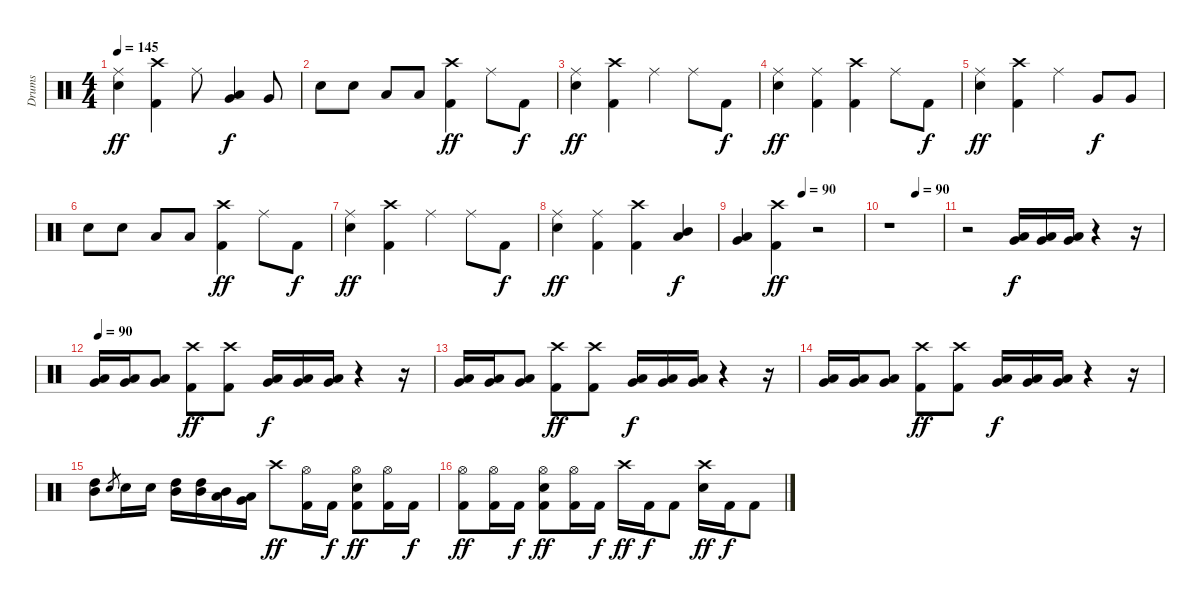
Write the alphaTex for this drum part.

\track ("Drums" "Drums") {instrument percussion}
\staff {score}
\articulation defaults
\ts (4 4)
\tempo 145
\clef neutral
\ks c
("Ride (middle)" "Electric Snare (hit)").4{dy ff} ("Crash high (hit)" "Kick (hit) 2").4 "Ride (middle)".8 ("Low Tom (hit)" "Very Low Tom (hit)").4{dy f} "Very Low Tom (hit)".8 |
"Electric Snare (hit)".8 "Electric Snare (hit)".8 "Low Tom (hit)".8 "Low Tom (hit)".8 ("Crash high (hit)" "Kick (hit) 2").4{dy ff} "Ride (middle)".8 "Kick (hit) 2".8{dy f} |
("Ride (middle)" "Electric Snare (hit)").4{dy ff} ("Crash high (hit)" "Kick (hit) 2").4 "Ride (middle)".4 "Ride (middle)".8 "Kick (hit) 2".8{dy f} |
("Ride (middle)" "Electric Snare (hit)").4{dy ff} ("Ride (middle)" "Kick (hit) 2").4 ("Crash high (hit)" "Kick (hit) 2").4 "Ride (middle)".8 "Kick (hit) 2".8{dy f} |
("Ride (middle)" "Electric Snare (hit)").4{dy ff} ("Crash high (hit)" "Kick (hit) 2").4 "Ride (middle)".4 "Very Low Tom (hit)".8{dy f} "Very Low Tom (hit)".8 |
"Electric Snare (hit)".8 "Electric Snare (hit)".8 "Low Tom (hit)".8 "Low Tom (hit)".8 ("Crash high (hit)" "Kick (hit) 2").4{dy ff} "Ride (middle)".8 "Kick (hit) 2".8{dy f} |
("Ride (middle)" "Electric Snare (hit)").4{dy ff} ("Crash high (hit)" "Kick (hit) 2").4 "Ride (middle)".4 "Ride (middle)".8 "Kick (hit) 2".8{dy f} |
("Ride (middle)" "Electric Snare (hit)").4{dy ff} ("Ride (middle)" "Kick (hit) 2").4 ("Crash high (hit)" "Kick (hit) 2").4 ("Mid Tom (hit)" "Low Tom (hit)").4{dy f} |
\tempo (90 0.5)
("Low Tom (hit)" "Very Low Tom (hit)").4 ("Crash high (hit)" "Kick (hit) 2").4{dy ff} r.2 |
\tempo (90 0.5)
r.1 |
r.2 ("Very Low Tom (hit)" "Low Floor Tom (hit)").16{dy f} ("Very Low Tom (hit)" "Low Floor Tom (hit)").16 ("Very Low Tom (hit)" "Low Floor Tom (hit)").16 r.4 r.16 |
\tempo 90
("Very Low Tom (hit)" "Low Floor Tom (hit)").16 ("Very Low Tom (hit)" "Low Floor Tom (hit)").16 ("Very Low Tom (hit)" "Low Floor Tom (hit)").8 ("Crash high (hit)" "Kick (hit) 2").8{dy ff} ("Crash high (hit)" "Kick (hit) 2").8 ("Very Low Tom (hit)" "Low Floor Tom (hit)").16{dy f} ("Very Low Tom (hit)" "Low Floor Tom (hit)").16 ("Very Low Tom (hit)" "Low Floor Tom (hit)").16 r.4 r.16 |
("Very Low Tom (hit)" "Low Floor Tom (hit)").16 ("Very Low Tom (hit)" "Low Floor Tom (hit)").16 ("Very Low Tom (hit)" "Low Floor Tom (hit)").8 ("Crash high (hit)" "Kick (hit) 2").8{dy ff} ("Crash high (hit)" "Kick (hit) 2").8 ("Very Low Tom (hit)" "Low Floor Tom (hit)").16{dy f} ("Very Low Tom (hit)" "Low Floor Tom (hit)").16 ("Very Low Tom (hit)" "Low Floor Tom (hit)").16 r.4 r.16 |
("Very Low Tom (hit)" "Low Floor Tom (hit)").16 ("Very Low Tom (hit)" "Low Floor Tom (hit)").16 ("Very Low Tom (hit)" "Low Floor Tom (hit)").8 ("Crash high (hit)" "Kick (hit) 2").8{dy ff} ("Crash high (hit)" "Kick (hit) 2").8 ("Very Low Tom (hit)" "Low Floor Tom (hit)").16{dy f} ("Very Low Tom (hit)" "Low Floor Tom (hit)").16 ("Very Low Tom (hit)" "Low Floor Tom (hit)").16 r.4 r.16 |
("High Tom (hit)" "Mid Tom (hit)").8 "Electric Snare (hit)".8{gr} "Electric Snare (hit)".16 "Electric Snare (hit)".16 ("High Tom (hit)" "Mid Tom (hit)").16 ("High Tom (hit)" "Mid Tom (hit)").16 ("Mid Tom (hit)" "Low Tom (hit)").16 ("Low Tom (hit)" "Very Low Tom (hit)").16 "Crash high (hit)".8{dy ff} ("Hi-Hat (open)" "Kick (hit) 2").16 "Kick (hit) 2".16{dy f} ("Hi-Hat (open)" "Electric Snare (hit)" "Kick (hit) 2").8{dy ff} ("Hi-Hat (open)" "Kick (hit) 2").16 "Kick (hit) 2".16{dy f} |
("Hi-Hat (open)" "Kick (hit) 2").8{dy ff} ("Hi-Hat (open)" "Kick (hit) 2").16 "Kick (hit) 2".16{dy f} ("Hi-Hat (open)" "Electric Snare (hit)" "Kick (hit) 2").8{dy ff} ("Hi-Hat (open)" "Kick (hit) 2").16 "Kick (hit) 2".16{dy f} "Crash high (hit)".16{dy ff} "Kick (hit) 2".16{dy f} "Kick (hit) 2".8 ("Crash high (hit)" "Electric Snare (hit)").16{dy ff} "Kick (hit) 2".16{dy f} "Kick (hit) 2".8
